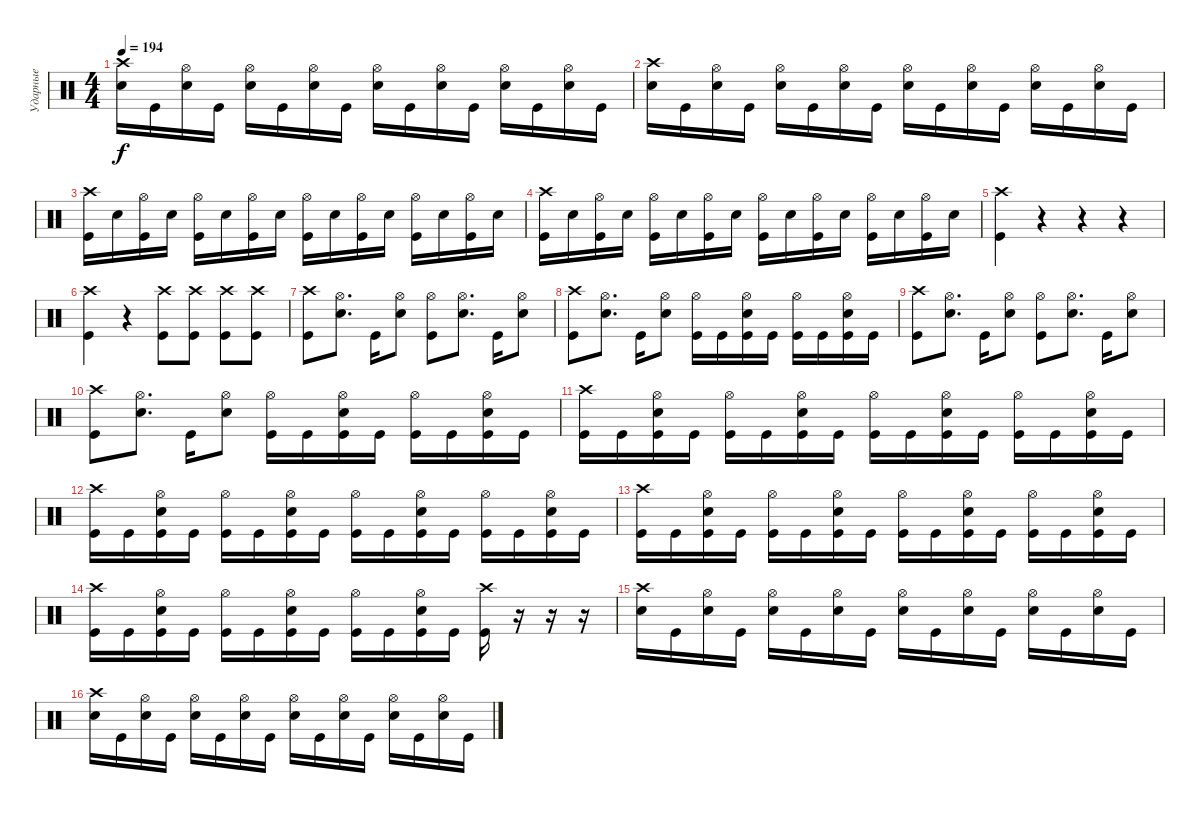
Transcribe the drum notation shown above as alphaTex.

\track ("Ударные" "Ударные") {instrument percussion}
\staff {score}
\articulation defaults
\ts (4 4)
\tempo 194
\clef neutral
\ks c
("Crash high (hit)" "Electric Snare (hit)").16{dy f} "Kick (hit)".16 ("Hi-Hat (open)" "Electric Snare (hit)").16 "Kick (hit)".16 ("Hi-Hat (open)" "Electric Snare (hit)").16 "Kick (hit)".16 ("Hi-Hat (open)" "Electric Snare (hit)").16 "Kick (hit)".16 ("Hi-Hat (open)" "Electric Snare (hit)").16 "Kick (hit)".16 ("Hi-Hat (open)" "Electric Snare (hit)").16 "Kick (hit)".16 ("Hi-Hat (open)" "Electric Snare (hit)").16 "Kick (hit)".16 ("Hi-Hat (open)" "Electric Snare (hit)").16 "Kick (hit)".16 |
("Crash high (hit)" "Electric Snare (hit)").16 "Kick (hit)".16 ("Hi-Hat (open)" "Electric Snare (hit)").16 "Kick (hit)".16 ("Hi-Hat (open)" "Electric Snare (hit)").16 "Kick (hit)".16 ("Hi-Hat (open)" "Electric Snare (hit)").16 "Kick (hit)".16 ("Hi-Hat (open)" "Electric Snare (hit)").16 "Kick (hit)".16 ("Hi-Hat (open)" "Electric Snare (hit)").16 "Kick (hit)".16 ("Hi-Hat (open)" "Electric Snare (hit)").16 "Kick (hit)".16 ("Hi-Hat (open)" "Electric Snare (hit)").16 "Kick (hit)".16 |
("Crash high (hit)" "Kick (hit)").16 "Electric Snare (hit)".16 ("Hi-Hat (open)" "Kick (hit)").16 "Electric Snare (hit)".16 ("Hi-Hat (open)" "Kick (hit)").16 "Electric Snare (hit)".16 ("Hi-Hat (open)" "Kick (hit)").16 "Electric Snare (hit)".16 ("Hi-Hat (open)" "Kick (hit)").16 "Electric Snare (hit)".16 ("Hi-Hat (open)" "Kick (hit)").16 "Electric Snare (hit)".16 ("Hi-Hat (open)" "Kick (hit)").16 "Electric Snare (hit)".16 ("Hi-Hat (open)" "Kick (hit)").16 "Electric Snare (hit)".16 |
("Crash high (hit)" "Kick (hit)").16 "Electric Snare (hit)".16 ("Hi-Hat (open)" "Kick (hit)").16 "Electric Snare (hit)".16 ("Hi-Hat (open)" "Kick (hit)").16 "Electric Snare (hit)".16 ("Hi-Hat (open)" "Kick (hit)").16 "Electric Snare (hit)".16 ("Hi-Hat (open)" "Kick (hit)").16 "Electric Snare (hit)".16 ("Hi-Hat (open)" "Kick (hit)").16 "Electric Snare (hit)".16 ("Hi-Hat (open)" "Kick (hit)").16 "Electric Snare (hit)".16 ("Hi-Hat (open)" "Kick (hit)").16 "Electric Snare (hit)".16 |
("Crash high (hit)" "Kick (hit)").4 r.4 r.4 r.4 |
("Crash high (hit)" "Kick (hit)").4 r.4 ("Crash high (hit)" "Kick (hit)").8 ("Crash high (hit)" "Kick (hit)").8 ("Crash high (hit)" "Kick (hit)").8 ("Crash high (hit)" "Kick (hit)").8 |
("Crash high (hit)" "Kick (hit)").8 ("Hi-Hat (open)" "Electric Snare (hit)").8{d} "Kick (hit)".16 ("Hi-Hat (open)" "Electric Snare (hit)").8 ("Hi-Hat (open)" "Kick (hit)").8 ("Hi-Hat (open)" "Electric Snare (hit)").8{d} "Kick (hit)".16 ("Hi-Hat (open)" "Electric Snare (hit)").8 |
("Crash high (hit)" "Kick (hit)").8 ("Hi-Hat (open)" "Electric Snare (hit)").8{d} "Kick (hit)".16 ("Hi-Hat (open)" "Electric Snare (hit)").8 ("Hi-Hat (open)" "Kick (hit)").16 "Kick (hit)".16 ("Hi-Hat (open)" "Electric Snare (hit)" "Kick (hit)").16 "Kick (hit)".16 ("Hi-Hat (open)" "Kick (hit)").16 "Kick (hit)".16 ("Hi-Hat (open)" "Electric Snare (hit)" "Kick (hit)").16 "Kick (hit)".16 |
("Crash high (hit)" "Kick (hit)").8 ("Hi-Hat (open)" "Electric Snare (hit)").8{d} "Kick (hit)".16 ("Hi-Hat (open)" "Electric Snare (hit)").8 ("Hi-Hat (open)" "Kick (hit)").8 ("Hi-Hat (open)" "Electric Snare (hit)").8{d} "Kick (hit)".16 ("Hi-Hat (open)" "Electric Snare (hit)").8 |
("Crash high (hit)" "Kick (hit)").8 ("Hi-Hat (open)" "Electric Snare (hit)").8{d} "Kick (hit)".16 ("Hi-Hat (open)" "Electric Snare (hit)").8 ("Hi-Hat (open)" "Kick (hit)").16 "Kick (hit)".16 ("Hi-Hat (open)" "Electric Snare (hit)" "Kick (hit)").16 "Kick (hit)".16 ("Hi-Hat (open)" "Kick (hit)").16 "Kick (hit)".16 ("Hi-Hat (open)" "Electric Snare (hit)" "Kick (hit)").16 "Kick (hit)".16 |
("Crash high (hit)" "Kick (hit)").16 "Kick (hit)".16 ("Hi-Hat (open)" "Electric Snare (hit)" "Kick (hit)").16 "Kick (hit)".16 ("Hi-Hat (open)" "Kick (hit)").16 "Kick (hit)".16 ("Hi-Hat (open)" "Electric Snare (hit)" "Kick (hit)").16 "Kick (hit)".16 ("Hi-Hat (open)" "Kick (hit)").16 "Kick (hit)".16 ("Hi-Hat (open)" "Electric Snare (hit)" "Kick (hit)").16 "Kick (hit)".16 ("Hi-Hat (open)" "Kick (hit)").16 "Kick (hit)".16 ("Hi-Hat (open)" "Electric Snare (hit)" "Kick (hit)").16 "Kick (hit)".16 |
("Crash high (hit)" "Kick (hit)").16 "Kick (hit)".16 ("Hi-Hat (open)" "Electric Snare (hit)" "Kick (hit)").16 "Kick (hit)".16 ("Hi-Hat (open)" "Kick (hit)").16 "Kick (hit)".16 ("Hi-Hat (open)" "Electric Snare (hit)" "Kick (hit)").16 "Kick (hit)".16 ("Hi-Hat (open)" "Kick (hit)").16 "Kick (hit)".16 ("Hi-Hat (open)" "Electric Snare (hit)" "Kick (hit)").16 "Kick (hit)".16 ("Hi-Hat (open)" "Kick (hit)").16 "Kick (hit)".16 ("Hi-Hat (open)" "Electric Snare (hit)" "Kick (hit)").16 "Kick (hit)".16 |
("Crash high (hit)" "Kick (hit)").16 "Kick (hit)".16 ("Hi-Hat (open)" "Electric Snare (hit)" "Kick (hit)").16 "Kick (hit)".16 ("Hi-Hat (open)" "Kick (hit)").16 "Kick (hit)".16 ("Hi-Hat (open)" "Electric Snare (hit)" "Kick (hit)").16 "Kick (hit)".16 ("Hi-Hat (open)" "Kick (hit)").16 "Kick (hit)".16 ("Hi-Hat (open)" "Electric Snare (hit)" "Kick (hit)").16 "Kick (hit)".16 ("Hi-Hat (open)" "Kick (hit)").16 "Kick (hit)".16 ("Hi-Hat (open)" "Electric Snare (hit)" "Kick (hit)").16 "Kick (hit)".16 |
("Crash high (hit)" "Kick (hit)").16 "Kick (hit)".16 ("Hi-Hat (open)" "Electric Snare (hit)" "Kick (hit)").16 "Kick (hit)".16 ("Hi-Hat (open)" "Kick (hit)").16 "Kick (hit)".16 ("Hi-Hat (open)" "Electric Snare (hit)" "Kick (hit)").16 "Kick (hit)".16 ("Hi-Hat (open)" "Kick (hit)").16 "Kick (hit)".16 ("Hi-Hat (open)" "Electric Snare (hit)" "Kick (hit)").16 "Kick (hit)".16 ("Crash high (hit)" "Kick (hit)").16 r.16 r.16 r.16 |
("Crash high (hit)" "Electric Snare (hit)").16 "Kick (hit)".16 ("Hi-Hat (open)" "Electric Snare (hit)").16 "Kick (hit)".16 ("Hi-Hat (open)" "Electric Snare (hit)").16 "Kick (hit)".16 ("Hi-Hat (open)" "Electric Snare (hit)").16 "Kick (hit)".16 ("Hi-Hat (open)" "Electric Snare (hit)").16 "Kick (hit)".16 ("Hi-Hat (open)" "Electric Snare (hit)").16 "Kick (hit)".16 ("Hi-Hat (open)" "Electric Snare (hit)").16 "Kick (hit)".16 ("Hi-Hat (open)" "Electric Snare (hit)").16 "Kick (hit)".16 |
("Crash high (hit)" "Electric Snare (hit)").16 "Kick (hit)".16 ("Hi-Hat (open)" "Electric Snare (hit)").16 "Kick (hit)".16 ("Hi-Hat (open)" "Electric Snare (hit)").16 "Kick (hit)".16 ("Hi-Hat (open)" "Electric Snare (hit)").16 "Kick (hit)".16 ("Hi-Hat (open)" "Electric Snare (hit)").16 "Kick (hit)".16 ("Hi-Hat (open)" "Electric Snare (hit)").16 "Kick (hit)".16 ("Hi-Hat (open)" "Electric Snare (hit)").16 "Kick (hit)".16 ("Hi-Hat (open)" "Electric Snare (hit)").16 "Kick (hit)".16
